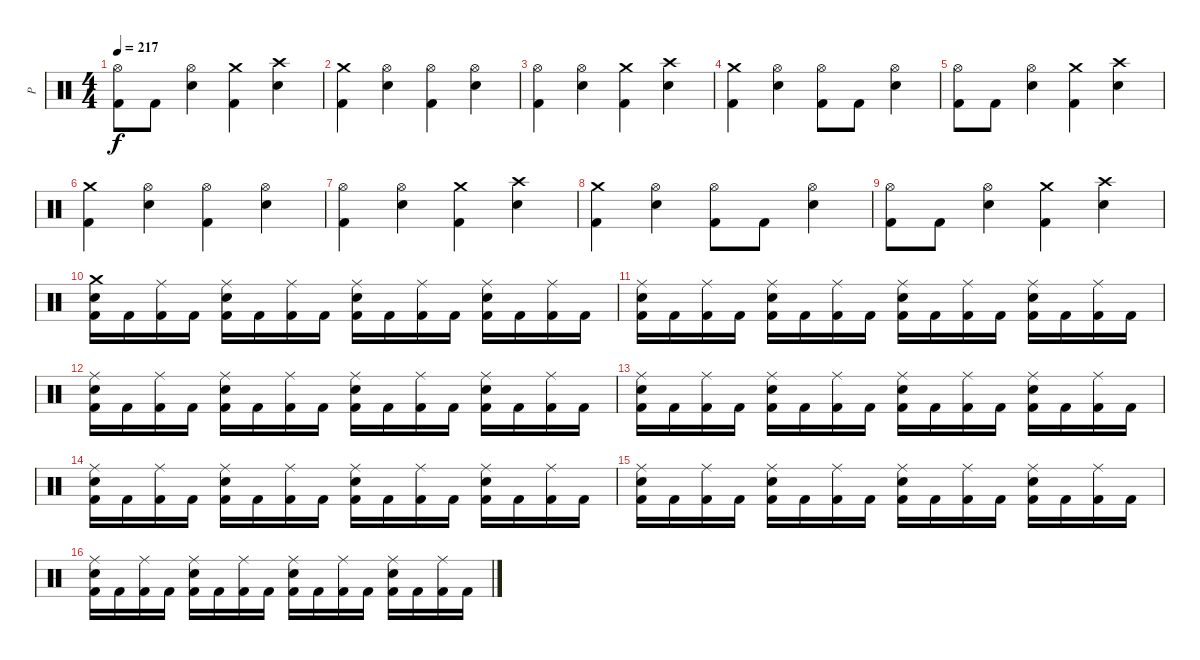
\track ("P" "P") {instrument percussion}
\staff {score}
\articulation defaults
\ts (4 4)
\tempo 217
\clef neutral
\ks c
("Hi-Hat (open)" "Kick (hit) 2").8{dy f} "Kick (hit) 2".8 ("Hi-Hat (open)" "Electric Snare (hit)").4 ("Crash medium (hit)" "Kick (hit) 2").4 ("Crash high (hit)" "Electric Snare (hit)").4 |
("Crash medium (hit)" "Kick (hit) 2").4 ("Hi-Hat (open)" "Electric Snare (hit)").4 ("Hi-Hat (open)" "Kick (hit) 2").4 ("Hi-Hat (open)" "Electric Snare (hit)").4 |
("Hi-Hat (open)" "Kick (hit) 2").4 ("Hi-Hat (open)" "Electric Snare (hit)").4 ("Crash medium (hit)" "Kick (hit) 2").4 ("Crash high (hit)" "Electric Snare (hit)").4 |
("Crash medium (hit)" "Kick (hit) 2").4 ("Hi-Hat (open)" "Electric Snare (hit)").4 ("Hi-Hat (open)" "Kick (hit) 2").8 "Kick (hit) 2".8 ("Hi-Hat (open)" "Electric Snare (hit)").4 |
("Hi-Hat (open)" "Kick (hit) 2").8 "Kick (hit) 2".8 ("Hi-Hat (open)" "Electric Snare (hit)").4 ("Crash medium (hit)" "Kick (hit) 2").4 ("Crash high (hit)" "Electric Snare (hit)").4 |
("Crash medium (hit)" "Kick (hit) 2").4 ("Hi-Hat (open)" "Electric Snare (hit)").4 ("Hi-Hat (open)" "Kick (hit) 2").4 ("Hi-Hat (open)" "Electric Snare (hit)").4 |
("Hi-Hat (open)" "Kick (hit) 2").4 ("Hi-Hat (open)" "Electric Snare (hit)").4 ("Crash medium (hit)" "Kick (hit) 2").4 ("Crash high (hit)" "Electric Snare (hit)").4 |
("Crash medium (hit)" "Kick (hit) 2").4 ("Hi-Hat (open)" "Electric Snare (hit)").4 ("Hi-Hat (open)" "Kick (hit) 2").8 "Kick (hit) 2".8 ("Hi-Hat (open)" "Electric Snare (hit)").4 |
("Hi-Hat (open)" "Kick (hit) 2").8 "Kick (hit) 2".8 ("Hi-Hat (open)" "Electric Snare (hit)").4 ("Crash medium (hit)" "Kick (hit) 2").4 ("Crash high (hit)" "Electric Snare (hit)").4 |
("Crash medium (hit)" "Electric Snare (hit)" "Kick (hit) 2").16 "Kick (hit) 2".16 ("Ride (middle)" "Kick (hit) 2").16 "Kick (hit) 2".16 ("Ride (middle)" "Electric Snare (hit)" "Kick (hit) 2").16 "Kick (hit) 2".16 ("Ride (middle)" "Kick (hit) 2").16 "Kick (hit) 2".16 ("Ride (middle)" "Electric Snare (hit)" "Kick (hit) 2").16 "Kick (hit) 2".16 ("Ride (middle)" "Kick (hit) 2").16 "Kick (hit) 2".16 ("Ride (middle)" "Electric Snare (hit)" "Kick (hit) 2").16 "Kick (hit) 2".16 ("Ride (middle)" "Kick (hit) 2").16 "Kick (hit) 2".16 |
("Ride (middle)" "Electric Snare (hit)" "Kick (hit) 2").16 "Kick (hit) 2".16 ("Ride (middle)" "Kick (hit) 2").16 "Kick (hit) 2".16 ("Ride (middle)" "Electric Snare (hit)" "Kick (hit) 2").16 "Kick (hit) 2".16 ("Ride (middle)" "Kick (hit) 2").16 "Kick (hit) 2".16 ("Ride (middle)" "Electric Snare (hit)" "Kick (hit) 2").16 "Kick (hit) 2".16 ("Ride (middle)" "Kick (hit) 2").16 "Kick (hit) 2".16 ("Ride (middle)" "Electric Snare (hit)" "Kick (hit) 2").16 "Kick (hit) 2".16 ("Ride (middle)" "Kick (hit) 2").16 "Kick (hit) 2".16 |
("Ride (middle)" "Electric Snare (hit)" "Kick (hit) 2").16 "Kick (hit) 2".16 ("Ride (middle)" "Kick (hit) 2").16 "Kick (hit) 2".16 ("Ride (middle)" "Electric Snare (hit)" "Kick (hit) 2").16 "Kick (hit) 2".16 ("Ride (middle)" "Kick (hit) 2").16 "Kick (hit) 2".16 ("Ride (middle)" "Electric Snare (hit)" "Kick (hit) 2").16 "Kick (hit) 2".16 ("Ride (middle)" "Kick (hit) 2").16 "Kick (hit) 2".16 ("Ride (middle)" "Electric Snare (hit)" "Kick (hit) 2").16 "Kick (hit) 2".16 ("Ride (middle)" "Kick (hit) 2").16 "Kick (hit) 2".16 |
("Ride (middle)" "Electric Snare (hit)" "Kick (hit) 2").16 "Kick (hit) 2".16 ("Ride (middle)" "Kick (hit) 2").16 "Kick (hit) 2".16 ("Ride (middle)" "Electric Snare (hit)" "Kick (hit) 2").16 "Kick (hit) 2".16 ("Ride (middle)" "Kick (hit) 2").16 "Kick (hit) 2".16 ("Ride (middle)" "Electric Snare (hit)" "Kick (hit) 2").16 "Kick (hit) 2".16 ("Ride (middle)" "Kick (hit) 2").16 "Kick (hit) 2".16 ("Ride (middle)" "Electric Snare (hit)" "Kick (hit) 2").16 "Kick (hit) 2".16 ("Ride (middle)" "Kick (hit) 2").16 "Kick (hit) 2".16 |
("Ride (middle)" "Electric Snare (hit)" "Kick (hit) 2").16 "Kick (hit) 2".16 ("Ride (middle)" "Kick (hit) 2").16 "Kick (hit) 2".16 ("Ride (middle)" "Electric Snare (hit)" "Kick (hit) 2").16 "Kick (hit) 2".16 ("Ride (middle)" "Kick (hit) 2").16 "Kick (hit) 2".16 ("Ride (middle)" "Electric Snare (hit)" "Kick (hit) 2").16 "Kick (hit) 2".16 ("Ride (middle)" "Kick (hit) 2").16 "Kick (hit) 2".16 ("Ride (middle)" "Electric Snare (hit)" "Kick (hit) 2").16 "Kick (hit) 2".16 ("Ride (middle)" "Kick (hit) 2").16 "Kick (hit) 2".16 |
("Ride (middle)" "Electric Snare (hit)" "Kick (hit) 2").16 "Kick (hit) 2".16 ("Ride (middle)" "Kick (hit) 2").16 "Kick (hit) 2".16 ("Ride (middle)" "Electric Snare (hit)" "Kick (hit) 2").16 "Kick (hit) 2".16 ("Ride (middle)" "Kick (hit) 2").16 "Kick (hit) 2".16 ("Ride (middle)" "Electric Snare (hit)" "Kick (hit) 2").16 "Kick (hit) 2".16 ("Ride (middle)" "Kick (hit) 2").16 "Kick (hit) 2".16 ("Ride (middle)" "Electric Snare (hit)" "Kick (hit) 2").16 "Kick (hit) 2".16 ("Ride (middle)" "Kick (hit) 2").16 "Kick (hit) 2".16 |
("Ride (middle)" "Electric Snare (hit)" "Kick (hit) 2").16 "Kick (hit) 2".16 ("Ride (middle)" "Kick (hit) 2").16 "Kick (hit) 2".16 ("Ride (middle)" "Electric Snare (hit)" "Kick (hit) 2").16 "Kick (hit) 2".16 ("Ride (middle)" "Kick (hit) 2").16 "Kick (hit) 2".16 ("Ride (middle)" "Electric Snare (hit)" "Kick (hit) 2").16 "Kick (hit) 2".16 ("Ride (middle)" "Kick (hit) 2").16 "Kick (hit) 2".16 ("Ride (middle)" "Electric Snare (hit)" "Kick (hit) 2").16 "Kick (hit) 2".16 ("Ride (middle)" "Kick (hit) 2").16 "Kick (hit) 2".16
